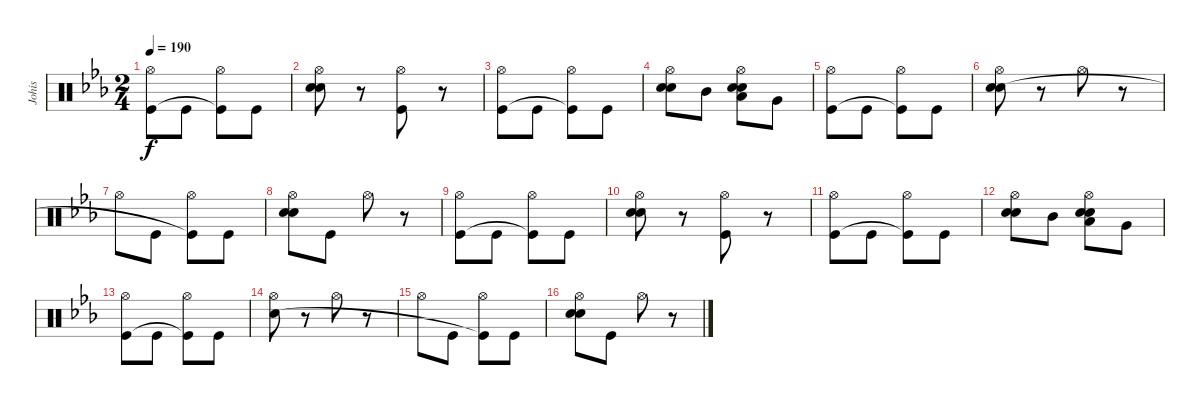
\track ("Johis" "Johis") {instrument percussion}
\staff {score}
\articulation defaults
\ts (2 4)
\tempo 190
\clef neutral
\ks eb
("Hi-Hat (open)" "Kick (hit)").8{dy f} "Kick (hit)".8 ("Hi-Hat (open)" "Kick (hit)"{t}).8 "Kick (hit)".8 |
("Hi-Hat (open)" "Snare (hit) 2" "Electric Snare (hit)").8 r.8 ("Hi-Hat (open)" "Kick (hit)").8 r.8 |
("Hi-Hat (open)" "Kick (hit)").8 "Kick (hit)".8 ("Hi-Hat (open)" "Kick (hit)"{t}).8 "Kick (hit)".8 |
("Hi-Hat (open)" "Snare (hit) 2" "Electric Snare (hit)").8 "Mid Tom (hit)".8 ("Hi-Hat (open)" "Snare (hit) 2" "Low Tom (hit)" "Electric Snare (hit)").8 "Very Low Tom (hit)".8 |
("Hi-Hat (open)" "Kick (hit)").8 "Kick (hit)".8 ("Hi-Hat (open)" "Kick (hit)"{t}).8 "Kick (hit)".8 |
("Hi-Hat (open)" "Snare (hit) 2" "Electric Snare (hit)").8 r.8 "Hi-Hat (open)".8 r.8 |
"Hi-Hat (open)".8 "Kick (hit)".8 ("Hi-Hat (open)" "Kick (hit)"{t}).8 "Kick (hit)".8 |
("Hi-Hat (open)" "Snare (hit) 2" "Electric Snare (hit)").8 "Kick (hit)".8 "Hi-Hat (open)".8 r.8 |
("Hi-Hat (open)" "Kick (hit)").8 "Kick (hit)".8 ("Hi-Hat (open)" "Kick (hit)"{t}).8 "Kick (hit)".8 |
("Hi-Hat (open)" "Snare (hit) 2" "Electric Snare (hit)").8 r.8 ("Hi-Hat (open)" "Kick (hit)").8 r.8 |
("Hi-Hat (open)" "Kick (hit)").8 "Kick (hit)".8 ("Hi-Hat (open)" "Kick (hit)"{t}).8 "Kick (hit)".8 |
("Hi-Hat (open)" "Snare (hit) 2" "Electric Snare (hit)").8 "Mid Tom (hit)".8 ("Hi-Hat (open)" "Snare (hit) 2" "Low Tom (hit)" "Electric Snare (hit)").8 "Very Low Tom (hit)".8 |
("Hi-Hat (open)" "Kick (hit)").8 "Kick (hit)".8 ("Hi-Hat (open)" "Kick (hit)"{t}).8 "Kick (hit)".8 |
("Hi-Hat (open)" "Snare (hit) 2").8 r.8 "Hi-Hat (open)".8 r.8 |
"Hi-Hat (open)".8 "Kick (hit)".8 ("Hi-Hat (open)" "Kick (hit)"{t}).8 "Kick (hit)".8 |
("Hi-Hat (open)" "Snare (hit) 2" "Electric Snare (hit)").8 "Kick (hit)".8 "Hi-Hat (open)".8 r.8
